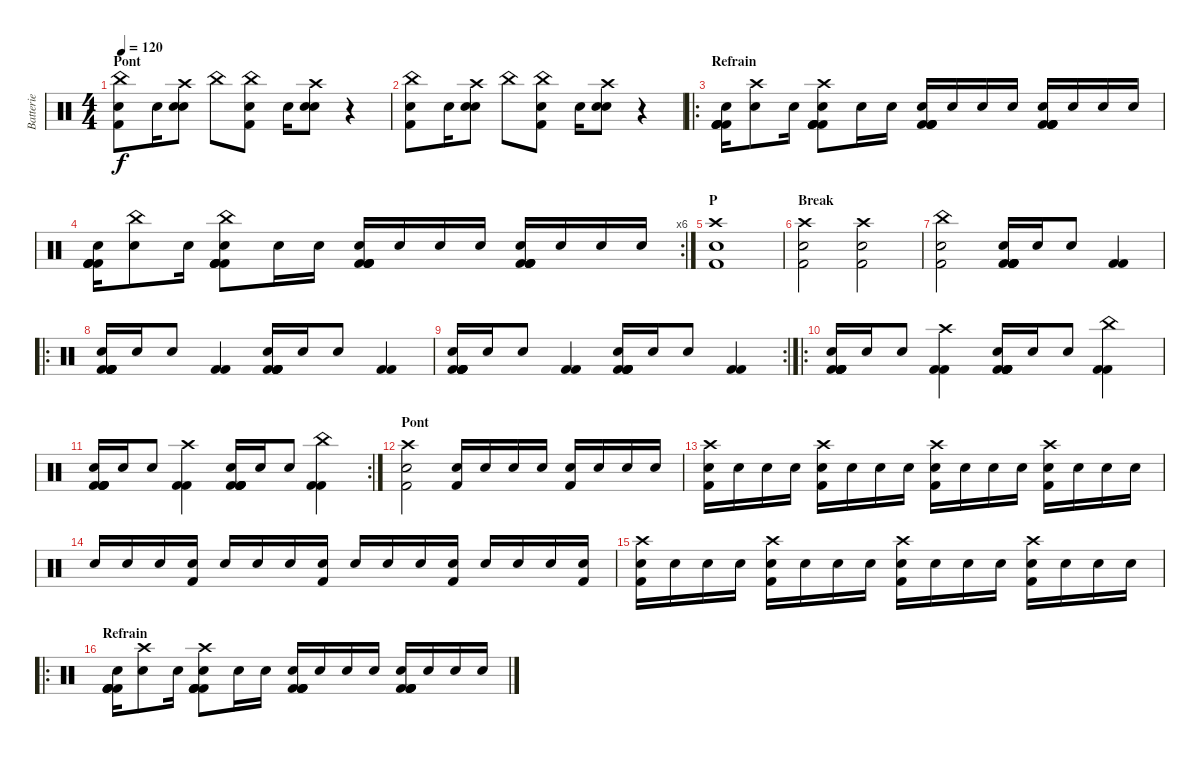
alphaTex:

\track ("Batterie" "Batterie") {instrument percussion}
\staff {score}
\articulation defaults
\ts (4 4)
\section ("" "Pont")
\tempo 120
\clef neutral
\ks c
("Electric Snare (hit)" "Kick (hit) 2" "China (hit)").8{dy f} "Electric Snare (hit)".16 ("Electric Snare (hit)" "Snare (hit) 2" "Crash high (hit)").8 "China (hit)".8 ("Electric Snare (hit)" "Kick (hit) 2" "China (hit)").8 "Electric Snare (hit)".16 ("Electric Snare (hit)" "Snare (hit) 2" "Crash high (hit)").8 r.4 |
("Electric Snare (hit)" "Kick (hit) 2" "China (hit)").8 "Electric Snare (hit)".16 ("Electric Snare (hit)" "Snare (hit) 2" "Crash high (hit)").8 "China (hit)".8 ("Electric Snare (hit)" "Kick (hit) 2" "China (hit)").8 "Electric Snare (hit)".16 ("Electric Snare (hit)" "Snare (hit) 2" "Crash high (hit)").8 r.4 |
\ro
\section ("" "Refrain")
("Electric Snare (hit)" "Kick (hit) 2" "Kick (hit) 2" "Kick (hit) 2" "Kick (hit) 2").16 ("Snare (hit) 2" "Crash high (hit)").8 "Electric Snare (hit)".16 ("Snare (hit) 2" "Crash high (hit)" "Kick (hit) 2" "Kick (hit) 2" "Kick (hit) 2" "Kick (hit) 2").8 "Snare (hit) 2".16 "Snare (hit) 2".16 ("Snare (hit) 2" "Kick (hit) 2" "Kick (hit) 2" "Kick (hit) 2" "Kick (hit) 2").16 "Snare (hit) 2".16 "Snare (hit) 2".16 "Snare (hit) 2".16 ("Snare (hit) 2" "Kick (hit) 2" "Kick (hit) 2" "Kick (hit) 2" "Kick (hit) 2").16 "Snare (hit) 2".16 "Snare (hit) 2".16 "Snare (hit) 2".16 |
\rc 6
("Snare (hit) 2" "Kick (hit) 2" "Kick (hit) 2" "Kick (hit) 2" "Kick (hit) 2").16 ("Electric Snare (hit)" "China (hit)").8 "Snare (hit) 2".16 ("Electric Snare (hit)" "China (hit)" "Kick (hit) 2" "Kick (hit) 2" "Kick (hit) 2" "Kick (hit) 2").8 "Electric Snare (hit)".16 "Electric Snare (hit)".16 ("Electric Snare (hit)" "Kick (hit) 2" "Kick (hit) 2" "Kick (hit) 2" "Kick (hit) 2").16 "Electric Snare (hit)".16 "Electric Snare (hit)".16 "Electric Snare (hit)".16 ("Electric Snare (hit)" "Kick (hit) 2" "Kick (hit) 2" "Kick (hit) 2" "Kick (hit) 2").16 "Electric Snare (hit)".16 "Electric Snare (hit)".16 "Electric Snare (hit)".16 |
\section ("" "P")
("Electric Snare (hit)" "Kick (hit) 2" "Crash high (hit)").1 |
\section ("" "Break")
("Electric Snare (hit)" "Kick (hit) 2" "Crash high (hit)").2 ("Snare (hit) 2" "Kick (hit) 2" "Crash high (hit)").2 |
("Electric Snare (hit)" "Kick (hit) 2" "China (hit)").2 ("Electric Snare (hit)" "Kick (hit) 2" "Kick (hit) 2" "Kick (hit) 2" "Kick (hit) 2" "Kick (hit) 2").16 "Electric Snare (hit)".16 "Snare (hit) 2".8 ("Kick (hit) 2" "Kick (hit) 2").4 |
\ro
("Electric Snare (hit)" "Kick (hit) 2" "Kick (hit) 2" "Kick (hit) 2" "Kick (hit) 2" "Kick (hit) 2").16 "Electric Snare (hit)".16 "Snare (hit) 2".8 ("Kick (hit) 2" "Kick (hit) 2").4 ("Electric Snare (hit)" "Kick (hit) 2" "Kick (hit) 2" "Kick (hit) 2" "Kick (hit) 2" "Kick (hit) 2").16 "Electric Snare (hit)".16 "Snare (hit) 2".8 ("Kick (hit) 2" "Kick (hit) 2").4 |
\rc 2
("Electric Snare (hit)" "Kick (hit) 2" "Kick (hit) 2" "Kick (hit) 2" "Kick (hit) 2" "Kick (hit) 2").16 "Electric Snare (hit)".16 "Snare (hit) 2".8 ("Kick (hit) 2" "Kick (hit) 2").4 ("Electric Snare (hit)" "Kick (hit) 2" "Kick (hit) 2" "Kick (hit) 2" "Kick (hit) 2" "Kick (hit) 2").16 "Electric Snare (hit)".16 "Snare (hit) 2".8 ("Kick (hit) 2" "Kick (hit) 2").4 |
\ro
("Snare (hit) 2" "Kick (hit) 2" "Kick (hit) 2" "Kick (hit) 2" "Kick (hit) 2" "Kick (hit) 2").16 "Snare (hit) 2".16 "Snare (hit) 2".8 ("Crash high (hit)" "Kick (hit) 2" "Kick (hit) 2").4 ("Electric Snare (hit)" "Kick (hit) 2" "Kick (hit) 2" "Kick (hit) 2" "Kick (hit) 2" "Kick (hit) 2").16 "Electric Snare (hit)".16 "Electric Snare (hit)".8 ("China (hit)" "Kick (hit) 2" "Kick (hit) 2").4 |
\rc 2
("Snare (hit) 2" "Kick (hit) 2" "Kick (hit) 2" "Kick (hit) 2" "Kick (hit) 2" "Kick (hit) 2").16 "Snare (hit) 2".16 "Snare (hit) 2".8 ("Crash high (hit)" "Kick (hit) 2" "Kick (hit) 2").4 ("Electric Snare (hit)" "Kick (hit) 2" "Kick (hit) 2" "Kick (hit) 2" "Kick (hit) 2" "Kick (hit) 2").16 "Electric Snare (hit)".16 "Electric Snare (hit)".8 ("China (hit)" "Kick (hit) 2" "Kick (hit) 2").4 |
\section ("" "Pont")
("Crash high (hit)" "Snare (hit) 2" "Kick (hit) 2").2 ("Snare (hit) 2" "Kick (hit) 2").16 "Snare (hit) 2".16 "Snare (hit) 2".16 "Snare (hit) 2".16 ("Snare (hit) 2" "Kick (hit) 2").16 "Snare (hit) 2".16 "Snare (hit) 2".16 "Snare (hit) 2".16 |
("Snare (hit) 2" "Kick (hit) 2" "Crash high (hit)").16 "Snare (hit) 2".16 "Snare (hit) 2".16 "Snare (hit) 2".16 ("Snare (hit) 2" "Kick (hit) 2" "Crash high (hit)").16 "Snare (hit) 2".16 "Snare (hit) 2".16 "Snare (hit) 2".16 ("Electric Snare (hit)" "Kick (hit) 2" "Crash high (hit)").16 "Electric Snare (hit)".16 "Electric Snare (hit)".16 "Electric Snare (hit)".16 ("Electric Snare (hit)" "Kick (hit) 2" "Crash high (hit)").16 "Electric Snare (hit)".16 "Electric Snare (hit)".16 "Electric Snare (hit)".16 |
"Snare (hit) 2".16 "Snare (hit) 2".16 "Snare (hit) 2".16 ("Snare (hit) 2" "Kick (hit) 2").16 "Snare (hit) 2".16 "Snare (hit) 2".16 "Snare (hit) 2".16 ("Snare (hit) 2" "Kick (hit) 2").16 "Snare (hit) 2".16 "Snare (hit) 2".16 "Snare (hit) 2".16 ("Snare (hit) 2" "Kick (hit) 2").16 "Snare (hit) 2".16 "Snare (hit) 2".16 "Snare (hit) 2".16 ("Snare (hit) 2" "Kick (hit) 2").16 |
("Snare (hit) 2" "Kick (hit) 2" "Crash high (hit)").16 "Snare (hit) 2".16 "Snare (hit) 2".16 "Snare (hit) 2".16 ("Snare (hit) 2" "Kick (hit) 2" "Crash high (hit)").16 "Snare (hit) 2".16 "Snare (hit) 2".16 "Snare (hit) 2".16 ("Electric Snare (hit)" "Kick (hit) 2" "Crash high (hit)").16 "Electric Snare (hit)".16 "Electric Snare (hit)".16 "Electric Snare (hit)".16 ("Electric Snare (hit)" "Kick (hit) 2" "Crash high (hit)").16 "Electric Snare (hit)".16 "Electric Snare (hit)".16 "Electric Snare (hit)".16 |
\ro
\section ("" "Refrain")
("Electric Snare (hit)" "Kick (hit) 2" "Kick (hit) 2" "Kick (hit) 2" "Kick (hit) 2").16 ("Snare (hit) 2" "Crash high (hit)").8 "Electric Snare (hit)".16 ("Snare (hit) 2" "Crash high (hit)" "Kick (hit) 2" "Kick (hit) 2" "Kick (hit) 2" "Kick (hit) 2").8 "Snare (hit) 2".16 "Snare (hit) 2".16 ("Snare (hit) 2" "Kick (hit) 2" "Kick (hit) 2" "Kick (hit) 2" "Kick (hit) 2").16 "Snare (hit) 2".16 "Snare (hit) 2".16 "Snare (hit) 2".16 ("Snare (hit) 2" "Kick (hit) 2" "Kick (hit) 2" "Kick (hit) 2" "Kick (hit) 2").16 "Snare (hit) 2".16 "Snare (hit) 2".16 "Snare (hit) 2".16
